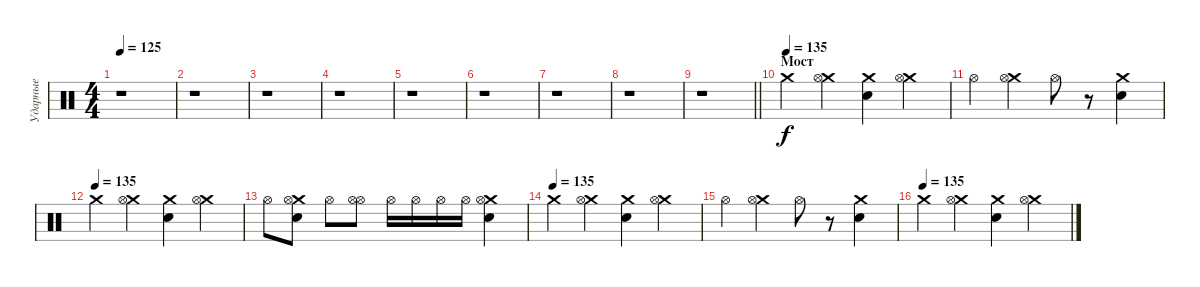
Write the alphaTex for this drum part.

\track ("Ударные" "Ударные") {instrument percussion}
\staff {score}
\articulation defaults
\ts (4 4)
\tempo 125
\clef neutral
\ks c
r.1{dy f} |
r.1 |
r.1 |
r.1 |
r.1 |
r.1 |
r.1 |
r.1 |
\barLineRight lightlight
r.1 |
\section ("" "Мост")
\tempo (135)
"Crash medium (hit)".4 ("Crash medium (hit)" "Hi-Hat (open)").4 ("Crash medium (hit)" "Electric Snare (hit)").4 ("Crash medium (hit)" "Hi-Hat (open)").4 |
"Hi-Hat (open)".4 ("Crash medium (hit)" "Hi-Hat (open)").4 "Hi-Hat (open)".8 r.8 ("Crash medium (hit)" "Electric Snare (hit)").4 |
\tempo (135)
"Crash medium (hit)".4 ("Crash medium (hit)" "Hi-Hat (open)").4 ("Crash medium (hit)" "Electric Snare (hit)").4 ("Crash medium (hit)" "Hi-Hat (open)").4 |
"Hi-Hat (open)".8 ("Crash medium (hit)" "Hi-Hat (open)" "Electric Snare (hit)").8 "Hi-Hat (open)".8 ("Hi-Hat (open)" "Hi-Hat (open)").8 "Hi-Hat (open)".16 "Hi-Hat (open)".16 "Hi-Hat (open)".16 "Hi-Hat (open)".16 ("Crash medium (hit)" "Hi-Hat (open)" "Electric Snare (hit)").4 |
\tempo (135)
"Crash medium (hit)".4 ("Crash medium (hit)" "Hi-Hat (open)").4 ("Crash medium (hit)" "Electric Snare (hit)").4 ("Crash medium (hit)" "Hi-Hat (open)").4 |
"Hi-Hat (open)".4 ("Crash medium (hit)" "Hi-Hat (open)").4 "Hi-Hat (open)".8 r.8 ("Crash medium (hit)" "Electric Snare (hit)").4 |
\tempo (135)
"Crash medium (hit)".4 ("Crash medium (hit)" "Hi-Hat (open)").4 ("Crash medium (hit)" "Electric Snare (hit)").4 ("Crash medium (hit)" "Hi-Hat (open)").4
